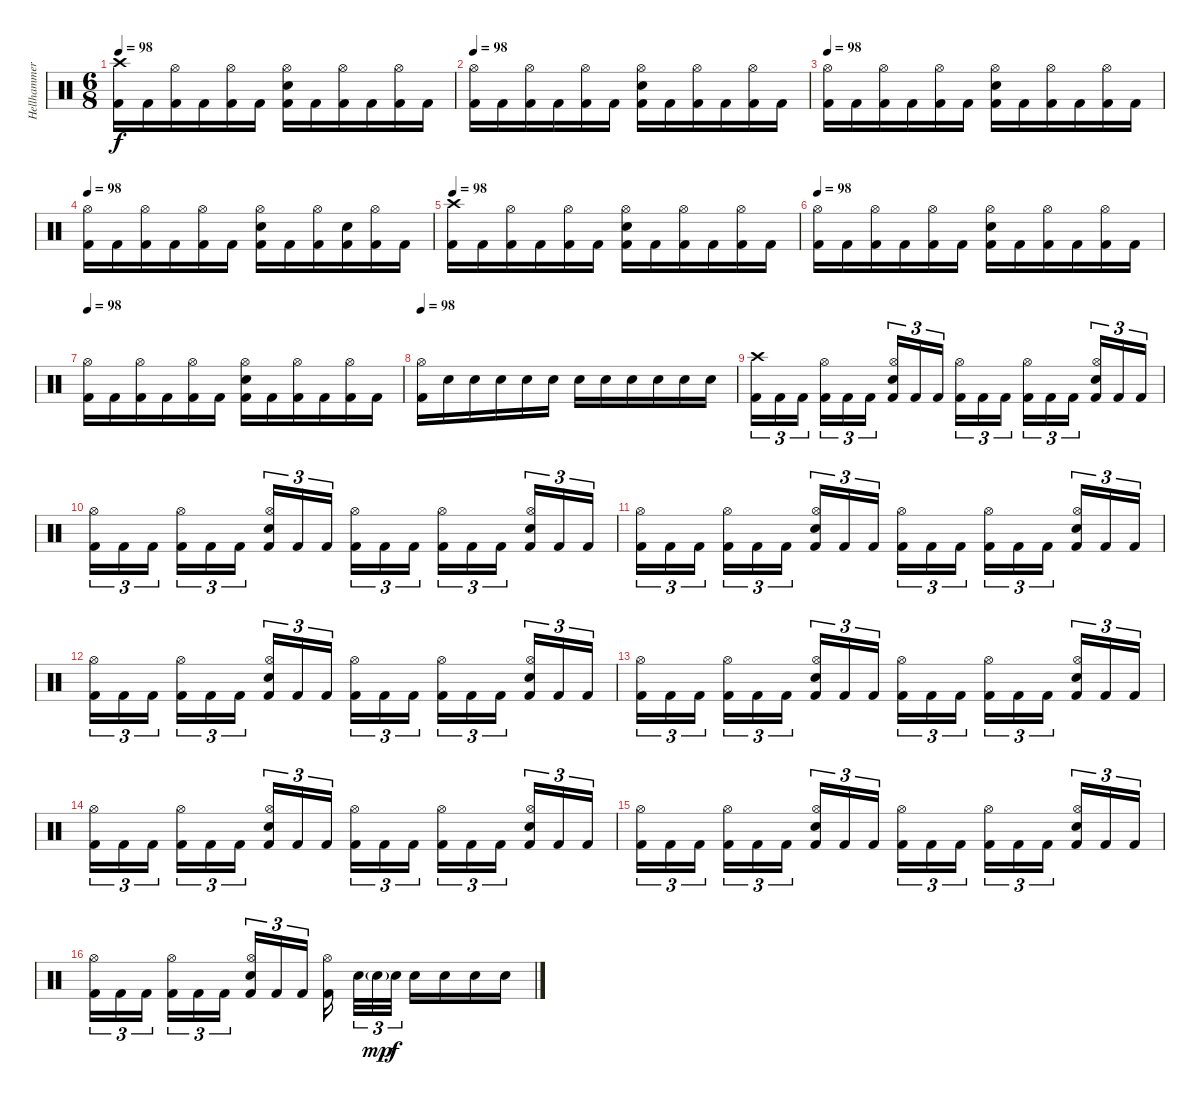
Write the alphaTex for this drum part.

\track ("Hellhammer (Drums)" "Hellhammer") {instrument percussion}
\staff {score}
\articulation defaults
\ts (6 8)
\tempo 98
\clef neutral
\ks c
("Kick (hit) 2" "Crash high (hit)").16{dy f} "Kick (hit) 2".16 ("Kick (hit) 2" "Hi-Hat (open)").16 "Kick (hit) 2".16 ("Kick (hit) 2" "Hi-Hat (open)").16 "Kick (hit) 2".16 ("Kick (hit) 2" "Electric Snare (hit)" "Hi-Hat (open)").16 "Kick (hit) 2".16 ("Kick (hit) 2" "Hi-Hat (open)").16 "Kick (hit) 2".16 ("Kick (hit) 2" "Hi-Hat (open)").16 "Kick (hit) 2".16 |
\tempo 98
("Kick (hit) 2" "Hi-Hat (open)").16 "Kick (hit) 2".16 ("Kick (hit) 2" "Hi-Hat (open)").16 "Kick (hit) 2".16 ("Kick (hit) 2" "Hi-Hat (open)").16 "Kick (hit) 2".16 ("Kick (hit) 2" "Electric Snare (hit)" "Hi-Hat (open)").16 "Kick (hit) 2".16 ("Kick (hit) 2" "Hi-Hat (open)").16 "Kick (hit) 2".16 ("Kick (hit) 2" "Hi-Hat (open)").16 "Kick (hit) 2".16 |
\tempo 98
("Kick (hit) 2" "Hi-Hat (open)").16 "Kick (hit) 2".16 ("Kick (hit) 2" "Hi-Hat (open)").16 "Kick (hit) 2".16 ("Kick (hit) 2" "Hi-Hat (open)").16 "Kick (hit) 2".16 ("Kick (hit) 2" "Electric Snare (hit)" "Hi-Hat (open)").16 "Kick (hit) 2".16 ("Kick (hit) 2" "Hi-Hat (open)").16 "Kick (hit) 2".16 ("Kick (hit) 2" "Hi-Hat (open)").16 "Kick (hit) 2".16 |
\tempo 98
("Kick (hit) 2" "Hi-Hat (open)").16 "Kick (hit) 2".16 ("Kick (hit) 2" "Hi-Hat (open)").16 "Kick (hit) 2".16 ("Kick (hit) 2" "Hi-Hat (open)").16 "Kick (hit) 2".16 ("Kick (hit) 2" "Electric Snare (hit)" "Hi-Hat (open)").16 "Kick (hit) 2".16 ("Kick (hit) 2" "Hi-Hat (open)").16 ("Kick (hit) 2" "Electric Snare (hit)").16 ("Kick (hit) 2" "Hi-Hat (open)").16 "Kick (hit) 2".16 |
\tempo 98
("Kick (hit) 2" "Crash high (hit)").16 "Kick (hit) 2".16 ("Kick (hit) 2" "Hi-Hat (open)").16 "Kick (hit) 2".16 ("Kick (hit) 2" "Hi-Hat (open)").16 "Kick (hit) 2".16 ("Kick (hit) 2" "Electric Snare (hit)" "Hi-Hat (open)").16 "Kick (hit) 2".16 ("Kick (hit) 2" "Hi-Hat (open)").16 "Kick (hit) 2".16 ("Kick (hit) 2" "Hi-Hat (open)").16 "Kick (hit) 2".16 |
\tempo 98
("Kick (hit) 2" "Hi-Hat (open)").16 "Kick (hit) 2".16 ("Kick (hit) 2" "Hi-Hat (open)").16 "Kick (hit) 2".16 ("Kick (hit) 2" "Hi-Hat (open)").16 "Kick (hit) 2".16 ("Kick (hit) 2" "Electric Snare (hit)" "Hi-Hat (open)").16 "Kick (hit) 2".16 ("Kick (hit) 2" "Hi-Hat (open)").16 "Kick (hit) 2".16 ("Kick (hit) 2" "Hi-Hat (open)").16 "Kick (hit) 2".16 |
\tempo 98
("Kick (hit) 2" "Hi-Hat (open)").16 "Kick (hit) 2".16 ("Kick (hit) 2" "Hi-Hat (open)").16 "Kick (hit) 2".16 ("Kick (hit) 2" "Hi-Hat (open)").16 "Kick (hit) 2".16 ("Kick (hit) 2" "Electric Snare (hit)" "Hi-Hat (open)").16 "Kick (hit) 2".16 ("Kick (hit) 2" "Hi-Hat (open)").16 "Kick (hit) 2".16 ("Kick (hit) 2" "Hi-Hat (open)").16 "Kick (hit) 2".16 |
\tempo 98
("Kick (hit) 2" "Hi-Hat (open)").16 "Electric Snare (hit)".16 "Electric Snare (hit)".16 "Electric Snare (hit)".16 "Electric Snare (hit)".16 "Electric Snare (hit)".16 "Electric Snare (hit)".16 "Electric Snare (hit)".16 "Electric Snare (hit)".16 "Electric Snare (hit)".16 "Electric Snare (hit)".16 "Electric Snare (hit)".16 |
("Kick (hit) 2" "Crash high (hit)").16{tu (3 2)} "Kick (hit) 2".16{tu (3 2)} "Kick (hit) 2".16{tu (3 2)} ("Kick (hit) 2" "Hi-Hat (open)").16{tu (3 2)} "Kick (hit) 2".16{tu (3 2)} "Kick (hit) 2".16{tu (3 2)} ("Kick (hit) 2" "Electric Snare (hit)" "Hi-Hat (open)").16{tu (3 2)} "Kick (hit) 2".16{tu (3 2)} "Kick (hit) 2".16{tu (3 2)} ("Kick (hit) 2" "Hi-Hat (open)").16{tu (3 2)} "Kick (hit) 2".16{tu (3 2)} "Kick (hit) 2".16{tu (3 2)} ("Kick (hit) 2" "Hi-Hat (open)").16{tu (3 2)} "Kick (hit) 2".16{tu (3 2)} "Kick (hit) 2".16{tu (3 2)} ("Kick (hit) 2" "Electric Snare (hit)" "Hi-Hat (open)").16{tu (3 2)} "Kick (hit) 2".16{tu (3 2)} "Kick (hit) 2".16{tu (3 2)} |
("Kick (hit) 2" "Hi-Hat (open)").16{tu (3 2)} "Kick (hit) 2".16{tu (3 2)} "Kick (hit) 2".16{tu (3 2)} ("Kick (hit) 2" "Hi-Hat (open)").16{tu (3 2)} "Kick (hit) 2".16{tu (3 2)} "Kick (hit) 2".16{tu (3 2)} ("Kick (hit) 2" "Electric Snare (hit)" "Hi-Hat (open)").16{tu (3 2)} "Kick (hit) 2".16{tu (3 2)} "Kick (hit) 2".16{tu (3 2)} ("Kick (hit) 2" "Hi-Hat (open)").16{tu (3 2)} "Kick (hit) 2".16{tu (3 2)} "Kick (hit) 2".16{tu (3 2)} ("Kick (hit) 2" "Hi-Hat (open)").16{tu (3 2)} "Kick (hit) 2".16{tu (3 2)} "Kick (hit) 2".16{tu (3 2)} ("Kick (hit) 2" "Electric Snare (hit)" "Hi-Hat (open)").16{tu (3 2)} "Kick (hit) 2".16{tu (3 2)} "Kick (hit) 2".16{tu (3 2)} |
("Kick (hit) 2" "Hi-Hat (open)").16{tu (3 2)} "Kick (hit) 2".16{tu (3 2)} "Kick (hit) 2".16{tu (3 2)} ("Kick (hit) 2" "Hi-Hat (open)").16{tu (3 2)} "Kick (hit) 2".16{tu (3 2)} "Kick (hit) 2".16{tu (3 2)} ("Kick (hit) 2" "Electric Snare (hit)" "Hi-Hat (open)").16{tu (3 2)} "Kick (hit) 2".16{tu (3 2)} "Kick (hit) 2".16{tu (3 2)} ("Kick (hit) 2" "Hi-Hat (open)").16{tu (3 2)} "Kick (hit) 2".16{tu (3 2)} "Kick (hit) 2".16{tu (3 2)} ("Kick (hit) 2" "Hi-Hat (open)").16{tu (3 2)} "Kick (hit) 2".16{tu (3 2)} "Kick (hit) 2".16{tu (3 2)} ("Kick (hit) 2" "Electric Snare (hit)" "Hi-Hat (open)").16{tu (3 2)} "Kick (hit) 2".16{tu (3 2)} "Kick (hit) 2".16{tu (3 2)} |
("Kick (hit) 2" "Hi-Hat (open)").16{tu (3 2)} "Kick (hit) 2".16{tu (3 2)} "Kick (hit) 2".16{tu (3 2)} ("Kick (hit) 2" "Hi-Hat (open)").16{tu (3 2)} "Kick (hit) 2".16{tu (3 2)} "Kick (hit) 2".16{tu (3 2)} ("Kick (hit) 2" "Electric Snare (hit)" "Hi-Hat (open)").16{tu (3 2)} "Kick (hit) 2".16{tu (3 2)} "Kick (hit) 2".16{tu (3 2)} ("Kick (hit) 2" "Hi-Hat (open)").16{tu (3 2)} "Kick (hit) 2".16{tu (3 2)} "Kick (hit) 2".16{tu (3 2)} ("Kick (hit) 2" "Hi-Hat (open)").16{tu (3 2)} "Kick (hit) 2".16{tu (3 2)} "Kick (hit) 2".16{tu (3 2)} ("Kick (hit) 2" "Electric Snare (hit)" "Hi-Hat (open)").16{tu (3 2)} "Kick (hit) 2".16{tu (3 2)} "Kick (hit) 2".16{tu (3 2)} |
("Kick (hit) 2" "Hi-Hat (open)").16{tu (3 2)} "Kick (hit) 2".16{tu (3 2)} "Kick (hit) 2".16{tu (3 2)} ("Kick (hit) 2" "Hi-Hat (open)").16{tu (3 2)} "Kick (hit) 2".16{tu (3 2)} "Kick (hit) 2".16{tu (3 2)} ("Kick (hit) 2" "Electric Snare (hit)" "Hi-Hat (open)").16{tu (3 2)} "Kick (hit) 2".16{tu (3 2)} "Kick (hit) 2".16{tu (3 2)} ("Kick (hit) 2" "Hi-Hat (open)").16{tu (3 2)} "Kick (hit) 2".16{tu (3 2)} "Kick (hit) 2".16{tu (3 2)} ("Kick (hit) 2" "Hi-Hat (open)").16{tu (3 2)} "Kick (hit) 2".16{tu (3 2)} "Kick (hit) 2".16{tu (3 2)} ("Kick (hit) 2" "Electric Snare (hit)" "Hi-Hat (open)").16{tu (3 2)} "Kick (hit) 2".16{tu (3 2)} "Kick (hit) 2".16{tu (3 2)} |
("Kick (hit) 2" "Hi-Hat (open)").16{tu (3 2)} "Kick (hit) 2".16{tu (3 2)} "Kick (hit) 2".16{tu (3 2)} ("Kick (hit) 2" "Hi-Hat (open)").16{tu (3 2)} "Kick (hit) 2".16{tu (3 2)} "Kick (hit) 2".16{tu (3 2)} ("Kick (hit) 2" "Electric Snare (hit)" "Hi-Hat (open)").16{tu (3 2)} "Kick (hit) 2".16{tu (3 2)} "Kick (hit) 2".16{tu (3 2)} ("Kick (hit) 2" "Hi-Hat (open)").16{tu (3 2)} "Kick (hit) 2".16{tu (3 2)} "Kick (hit) 2".16{tu (3 2)} ("Kick (hit) 2" "Hi-Hat (open)").16{tu (3 2)} "Kick (hit) 2".16{tu (3 2)} "Kick (hit) 2".16{tu (3 2)} ("Kick (hit) 2" "Electric Snare (hit)" "Hi-Hat (open)").16{tu (3 2)} "Kick (hit) 2".16{tu (3 2)} "Kick (hit) 2".16{tu (3 2)} |
("Kick (hit) 2" "Hi-Hat (open)").16{tu (3 2)} "Kick (hit) 2".16{tu (3 2)} "Kick (hit) 2".16{tu (3 2)} ("Kick (hit) 2" "Hi-Hat (open)").16{tu (3 2)} "Kick (hit) 2".16{tu (3 2)} "Kick (hit) 2".16{tu (3 2)} ("Kick (hit) 2" "Electric Snare (hit)" "Hi-Hat (open)").16{tu (3 2)} "Kick (hit) 2".16{tu (3 2)} "Kick (hit) 2".16{tu (3 2)} ("Kick (hit) 2" "Hi-Hat (open)").16{tu (3 2)} "Kick (hit) 2".16{tu (3 2)} "Kick (hit) 2".16{tu (3 2)} ("Kick (hit) 2" "Hi-Hat (open)").16{tu (3 2)} "Kick (hit) 2".16{tu (3 2)} "Kick (hit) 2".16{tu (3 2)} ("Kick (hit) 2" "Electric Snare (hit)" "Hi-Hat (open)").16{tu (3 2)} "Kick (hit) 2".16{tu (3 2)} "Kick (hit) 2".16{tu (3 2)} |
("Kick (hit) 2" "Hi-Hat (open)").16{tu (3 2)} "Kick (hit) 2".16{tu (3 2)} "Kick (hit) 2".16{tu (3 2)} ("Kick (hit) 2" "Hi-Hat (open)").16{tu (3 2)} "Kick (hit) 2".16{tu (3 2)} "Kick (hit) 2".16{tu (3 2)} ("Kick (hit) 2" "Electric Snare (hit)" "Hi-Hat (open)").16{tu (3 2)} "Kick (hit) 2".16{tu (3 2)} "Kick (hit) 2".16{tu (3 2)} ("Kick (hit) 2" "Hi-Hat (open)").16 "Electric Snare (hit)".32{tu (3 2)} "Electric Snare (hit)"{g}.32{tu (3 2) dy mp} "Electric Snare (hit)".32{tu (3 2) dy f} "Electric Snare (hit)".16 "Electric Snare (hit)".16 "Electric Snare (hit)".16 "Electric Snare (hit)".16
